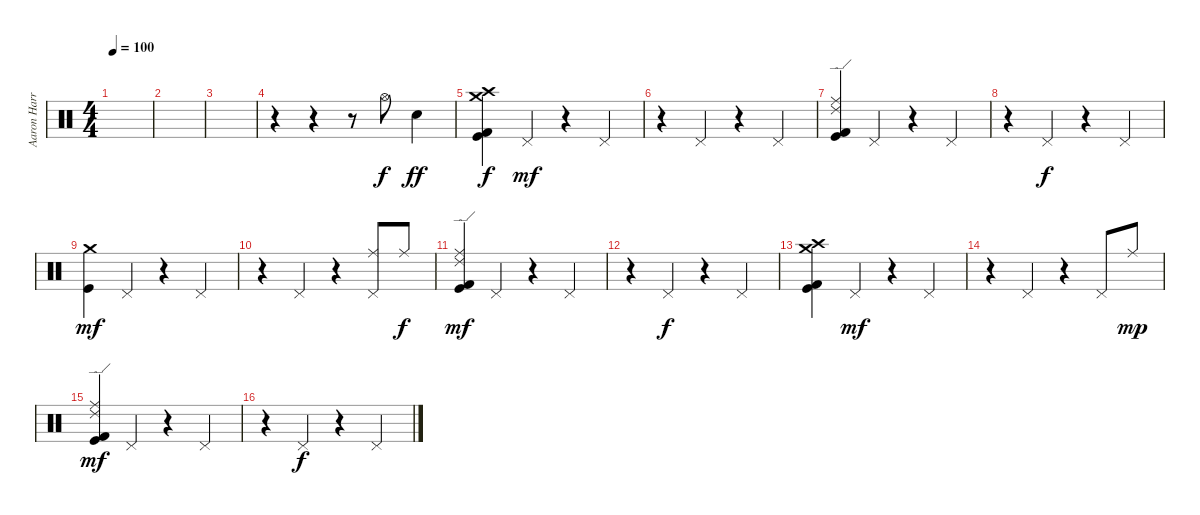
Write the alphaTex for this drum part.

\track ("Aaron Harris" "Aaron Harr") {instrument percussion}
\staff {score}
\articulation defaults
\ts (4 4)
\tempo 100
\clef neutral
\ks c
|
|
|
r.4 r.4 r.8 "Hi-Hat (open)".8{dy f} "Electric Snare (hit)".4{dy ff} |
("Crash medium (hit)" "Crash high (hit)" "Kick (hit) 2" "Kick (hit)").4{dy f} "Pedal Hi-Hat (hit)".4{dy mf} r.4 "Pedal Hi-Hat (hit)".4 |
r.4 "Pedal Hi-Hat (hit)".4 r.4 "Pedal Hi-Hat (hit)".4 |
("Ride (middle)" "Ride (edge) 2" "Kick (hit) 2" "Kick (hit)").4 "Pedal Hi-Hat (hit)".4 r.4 "Pedal Hi-Hat (hit)".4 |
r.4 "Pedal Hi-Hat (hit)".4{dy f} r.4 "Pedal Hi-Hat (hit)".4 |
("Crash medium (hit)" "Kick (hit)").4{dy mf} "Pedal Hi-Hat (hit)".4 r.4 "Pedal Hi-Hat (hit)".4 |
r.4 "Pedal Hi-Hat (hit)".4 r.4 ("Ride (middle)" "Pedal Hi-Hat (hit)").8 "Ride (middle)".8{dy f} |
("Ride (middle)" "Ride (edge) 2" "Kick (hit) 2" "Kick (hit)").4{dy mf} "Pedal Hi-Hat (hit)".4 r.4 "Pedal Hi-Hat (hit)".4 |
r.4 "Pedal Hi-Hat (hit)".4{dy f} r.4 "Pedal Hi-Hat (hit)".4 |
("Crash medium (hit)" "Crash high (hit)" "Kick (hit) 2" "Kick (hit)").4 "Pedal Hi-Hat (hit)".4{dy mf} r.4 "Pedal Hi-Hat (hit)".4 |
r.4 "Pedal Hi-Hat (hit)".4 r.4 "Pedal Hi-Hat (hit)".8 "Ride (middle)".8{dy mp} |
("Ride (middle)" "Ride (edge) 2" "Kick (hit) 2" "Kick (hit)").4{dy mf} "Pedal Hi-Hat (hit)".4 r.4 "Pedal Hi-Hat (hit)".4 |
r.4 "Pedal Hi-Hat (hit)".4{dy f} r.4 "Pedal Hi-Hat (hit)".4
